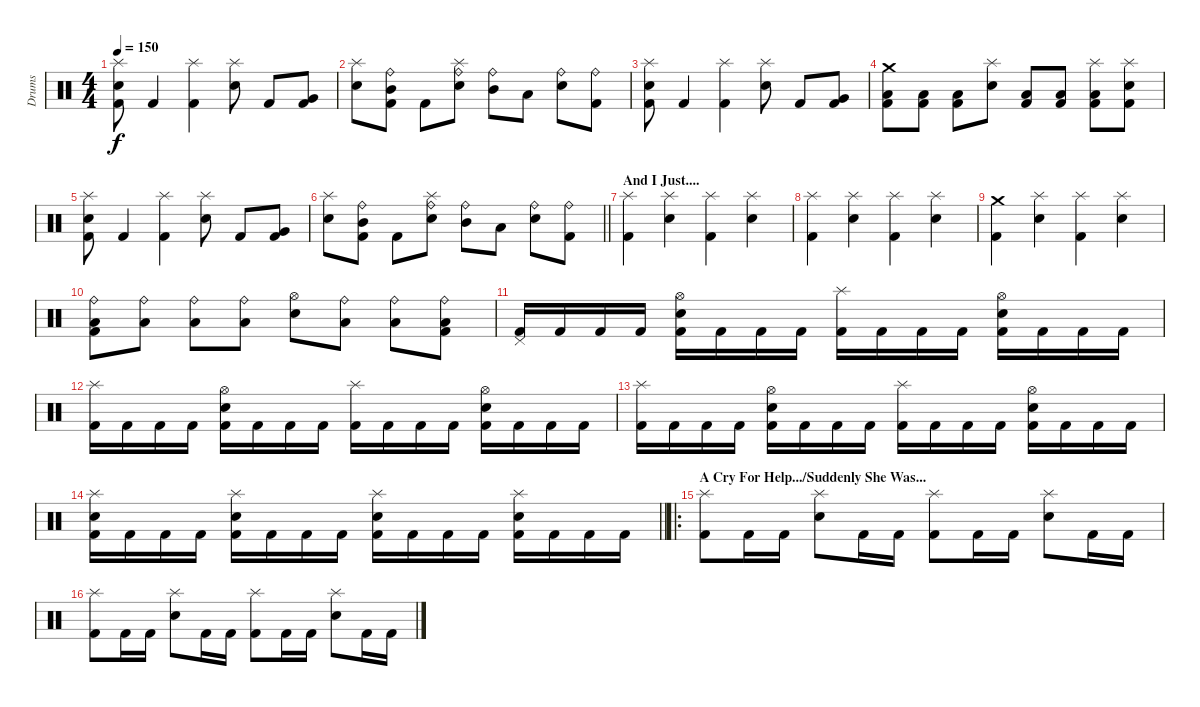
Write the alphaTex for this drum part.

\track ("Drums" "Drums") {instrument percussion}
\staff {score}
\articulation defaults
\ts (4 4)
\tempo 150
\clef neutral
\ks c
("Kick (hit) 2" "Electric Snare (hit)" "Splash (hit)").8{dy f} "Kick (hit) 2".4 ("Kick (hit) 2" "Splash (hit)").4 ("Electric Snare (hit)" "Splash (hit)").8 "Kick (hit) 2".8 ("Kick (hit) 2" "Very Low Tom (hit)").8 |
("Electric Snare (hit)" "Splash (hit)").8 ("Ride (bell)" "Kick (hit) 2" "Mid Tom (hit)").8 "Kick (hit) 2".8 ("Ride (bell)" "Electric Snare (hit)" "Splash (hit)").8 ("Ride (bell)" "Mid Tom (hit)").8 "Low Floor Tom (hit)".8 ("Ride (bell)" "Electric Snare (hit)").8 ("Ride (bell)" "Kick (hit) 2").8 |
("Kick (hit) 2" "Electric Snare (hit)" "Splash (hit)").8 "Kick (hit) 2".4 ("Kick (hit) 2" "Splash (hit)").4 ("Electric Snare (hit)" "Splash (hit)").8 "Kick (hit) 2".8 ("Kick (hit) 2" "Very Low Tom (hit)").8 |
("Kick (hit) 2" "Low Floor Tom (hit)" "Crash medium (hit)").8 ("Kick (hit) 2" "Low Floor Tom (hit)").8 ("Kick (hit) 2" "Low Floor Tom (hit)").8 ("Electric Snare (hit)" "Splash (hit)").8 ("Kick (hit) 2" "Low Floor Tom (hit)").8 ("Kick (hit) 2" "Low Floor Tom (hit)").8 ("Kick (hit) 2" "Low Floor Tom (hit)" "Splash (hit)").8 ("Kick (hit) 2" "Electric Snare (hit)" "Splash (hit)").8 |
("Kick (hit) 2" "Electric Snare (hit)" "Splash (hit)").8 "Kick (hit) 2".4 ("Kick (hit) 2" "Splash (hit)").4 ("Electric Snare (hit)" "Splash (hit)").8 "Kick (hit) 2".8 ("Kick (hit) 2" "Very Low Tom (hit)").8 |
\barLineRight lightlight
("Electric Snare (hit)" "Splash (hit)").8 ("Ride (bell)" "Kick (hit) 2" "Mid Tom (hit)").8 "Kick (hit) 2".8 ("Ride (bell)" "Electric Snare (hit)" "Splash (hit)").8 ("Ride (bell)" "Mid Tom (hit)").8 "Low Floor Tom (hit)".8 ("Ride (bell)" "Electric Snare (hit)").8 ("Ride (bell)" "Kick (hit) 2").8 |
\section ("" "And I Just....")
("Kick (hit) 2" "Splash (hit)").4 ("Electric Snare (hit)" "Splash (hit)").4 ("Kick (hit) 2" "Splash (hit)").4 ("Electric Snare (hit)" "Splash (hit)").4 |
("Kick (hit) 2" "Splash (hit)").4 ("Electric Snare (hit)" "Splash (hit)").4 ("Kick (hit) 2" "Splash (hit)").4 ("Electric Snare (hit)" "Splash (hit)").4 |
("Kick (hit) 2" "Crash medium (hit)").4 ("Electric Snare (hit)" "Splash (hit)").4 ("Kick (hit) 2" "Splash (hit)").4 ("Electric Snare (hit)" "Splash (hit)").4 |
("Kick (hit) 2" "Low Floor Tom (hit)" "Ride (bell)").8 ("Low Floor Tom (hit)" "Ride (bell)").8 ("Low Floor Tom (hit)" "Ride (bell)").8 ("Low Floor Tom (hit)" "Ride (bell)").8 ("Electric Snare (hit)" "Hi-Hat (open)").8 ("Low Floor Tom (hit)" "Ride (bell)").8 ("Low Floor Tom (hit)" "Ride (bell)").8 ("Kick (hit) 2" "Low Floor Tom (hit)" "Ride (bell)").8 |
("Kick (hit) 2" "Pedal Hi-Hat (hit)").16 "Kick (hit) 2".16 "Kick (hit) 2".16 "Kick (hit) 2".16 ("Kick (hit) 2" "Electric Snare (hit)" "Hi-Hat (open)").16 "Kick (hit) 2".16 "Kick (hit) 2".16 "Kick (hit) 2".16 ("Kick (hit) 2" "Splash (hit)").16 "Kick (hit) 2".16 "Kick (hit) 2".16 "Kick (hit) 2".16 ("Kick (hit) 2" "Electric Snare (hit)" "Hi-Hat (open)").16 "Kick (hit) 2".16 "Kick (hit) 2".16 "Kick (hit) 2".16 |
("Kick (hit) 2" "Splash (hit)").16 "Kick (hit) 2".16 "Kick (hit) 2".16 "Kick (hit) 2".16 ("Kick (hit) 2" "Electric Snare (hit)" "Hi-Hat (open)").16 "Kick (hit) 2".16 "Kick (hit) 2".16 "Kick (hit) 2".16 ("Kick (hit) 2" "Splash (hit)").16 "Kick (hit) 2".16 "Kick (hit) 2".16 "Kick (hit) 2".16 ("Kick (hit) 2" "Electric Snare (hit)" "Hi-Hat (open)").16 "Kick (hit) 2".16 "Kick (hit) 2".16 "Kick (hit) 2".16 |
("Kick (hit) 2" "Splash (hit)").16 "Kick (hit) 2".16 "Kick (hit) 2".16 "Kick (hit) 2".16 ("Kick (hit) 2" "Electric Snare (hit)" "Hi-Hat (open)").16 "Kick (hit) 2".16 "Kick (hit) 2".16 "Kick (hit) 2".16 ("Kick (hit) 2" "Splash (hit)").16 "Kick (hit) 2".16 "Kick (hit) 2".16 "Kick (hit) 2".16 ("Kick (hit) 2" "Electric Snare (hit)" "Hi-Hat (open)").16 "Kick (hit) 2".16 "Kick (hit) 2".16 "Kick (hit) 2".16 |
\barLineRight lightlight
("Kick (hit) 2" "Electric Snare (hit)" "Splash (hit)").16 "Kick (hit) 2".16 "Kick (hit) 2".16 "Kick (hit) 2".16 ("Kick (hit) 2" "Electric Snare (hit)" "Splash (hit)").16 "Kick (hit) 2".16 "Kick (hit) 2".16 "Kick (hit) 2".16 ("Kick (hit) 2" "Electric Snare (hit)" "Splash (hit)").16 "Kick (hit) 2".16 "Kick (hit) 2".16 "Kick (hit) 2".16 ("Kick (hit) 2" "Electric Snare (hit)" "Splash (hit)").16 "Kick (hit) 2".16 "Kick (hit) 2".16 "Kick (hit) 2".16 |
\ro
\section ("" "A Cry For Help.../Suddenly She Was...")
("Kick (hit) 2" "Splash (hit)").8 "Kick (hit) 2".16 "Kick (hit) 2".16 ("Electric Snare (hit)" "Splash (hit)").8 "Kick (hit) 2".16 "Kick (hit) 2".16 ("Kick (hit) 2" "Splash (hit)").8 "Kick (hit) 2".16 "Kick (hit) 2".16 ("Electric Snare (hit)" "Splash (hit)").8 "Kick (hit) 2".16 "Kick (hit) 2".16 |
("Kick (hit) 2" "Splash (hit)").8 "Kick (hit) 2".16 "Kick (hit) 2".16 ("Electric Snare (hit)" "Splash (hit)").8 "Kick (hit) 2".16 "Kick (hit) 2".16 ("Kick (hit) 2" "Splash (hit)").8 "Kick (hit) 2".16 "Kick (hit) 2".16 ("Electric Snare (hit)" "Splash (hit)").8 "Kick (hit) 2".16 "Kick (hit) 2".16
